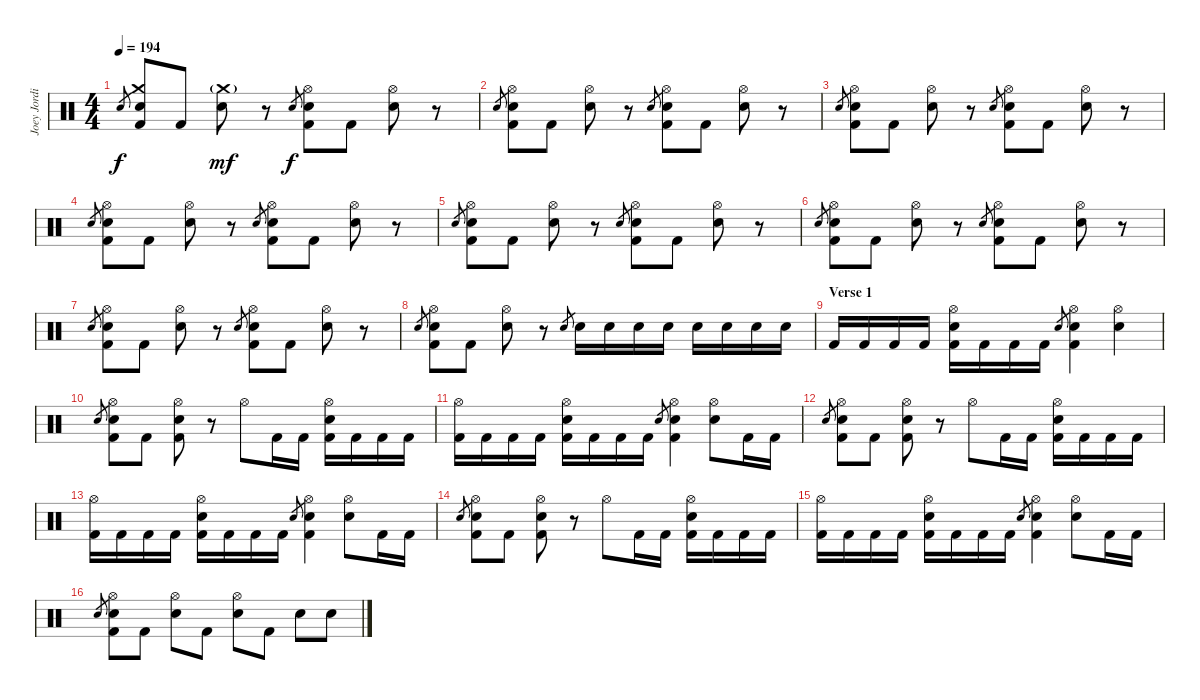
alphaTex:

\track ("Joey Jordison" "Joey Jordi") {instrument percussion}
\staff {score}
\articulation defaults
\ts (4 4)
\tempo 194
\clef neutral
\ks c "Snare (hit) 2".8{gr dy f}
("Crash medium (hit)" "Snare (hit)" "Kick (hit) 2").8 "Kick (hit) 2".8 ("Crash medium (hit)"{g} "Snare (hit) 2").8{dy mf} r.8 "Snare (hit) 2".8{gr dy f} ("Hi-Hat (open)" "Snare (hit)" "Kick (hit) 2").8 "Kick (hit) 2".8 ("Hi-Hat (open)" "Snare (hit) 2").8 r.8 |
"Snare (hit) 2".8{gr} ("Hi-Hat (open)" "Snare (hit)" "Kick (hit) 2").8 "Kick (hit) 2".8 ("Hi-Hat (open)" "Snare (hit) 2").8 r.8 "Snare (hit) 2".8{gr} ("Hi-Hat (open)" "Snare (hit)" "Kick (hit) 2").8 "Kick (hit) 2".8 ("Hi-Hat (open)" "Snare (hit) 2").8 r.8 |
"Snare (hit) 2".8{gr} ("Hi-Hat (open)" "Snare (hit)" "Kick (hit) 2").8 "Kick (hit) 2".8 ("Hi-Hat (open)" "Snare (hit) 2").8 r.8 "Snare (hit) 2".8{gr} ("Hi-Hat (open)" "Snare (hit)" "Kick (hit) 2").8 "Kick (hit) 2".8 ("Hi-Hat (open)" "Snare (hit) 2").8 r.8 |
"Snare (hit) 2".8{gr} ("Hi-Hat (open)" "Snare (hit)" "Kick (hit) 2").8 "Kick (hit) 2".8 ("Hi-Hat (open)" "Snare (hit) 2").8 r.8 "Snare (hit) 2".8{gr} ("Hi-Hat (open)" "Snare (hit)" "Kick (hit) 2").8 "Kick (hit) 2".8 ("Hi-Hat (open)" "Snare (hit) 2").8 r.8 |
"Snare (hit) 2".8{gr} ("Hi-Hat (open)" "Snare (hit)" "Kick (hit) 2").8 "Kick (hit) 2".8 ("Hi-Hat (open)" "Snare (hit) 2").8 r.8 "Snare (hit) 2".8{gr} ("Hi-Hat (open)" "Snare (hit)" "Kick (hit) 2").8 "Kick (hit) 2".8 ("Hi-Hat (open)" "Snare (hit) 2").8 r.8 |
"Snare (hit) 2".8{gr} ("Hi-Hat (open)" "Snare (hit)" "Kick (hit) 2").8 "Kick (hit) 2".8 ("Hi-Hat (open)" "Snare (hit) 2").8 r.8 "Snare (hit) 2".8{gr} ("Hi-Hat (open)" "Snare (hit)" "Kick (hit) 2").8 "Kick (hit) 2".8 ("Hi-Hat (open)" "Snare (hit) 2").8 r.8 |
"Snare (hit) 2".8{gr} ("Hi-Hat (open)" "Snare (hit)" "Kick (hit) 2").8 "Kick (hit) 2".8 ("Hi-Hat (open)" "Snare (hit) 2").8 r.8 "Snare (hit) 2".8{gr} ("Hi-Hat (open)" "Snare (hit)" "Kick (hit) 2").8 "Kick (hit) 2".8 ("Hi-Hat (open)" "Snare (hit) 2").8 r.8 |
"Snare (hit) 2".8{gr} ("Hi-Hat (open)" "Snare (hit)" "Kick (hit) 2").8 "Kick (hit) 2".8 ("Hi-Hat (open)" "Snare (hit) 2").8 r.8 "Snare (hit) 2".8{gr} "Snare (hit) 2".16 "Snare (hit) 2".16 "Snare (hit) 2".16 "Snare (hit) 2".16 "Snare (hit) 2".16 "Snare (hit) 2".16 "Snare (hit) 2".16 "Snare (hit) 2".16 |
\section ("" "Verse 1")
"Kick (hit) 2".16 "Kick (hit) 2".16 "Kick (hit) 2".16 "Kick (hit) 2".16 ("Hi-Hat (open)" "Snare (hit) 2" "Kick (hit) 2").16 "Kick (hit) 2".16 "Kick (hit) 2".16 "Kick (hit) 2".16 "Snare (hit) 2".8{gr} ("Hi-Hat (open)" "Snare (hit)" "Kick (hit) 2").4 ("Hi-Hat (open)" "Snare (hit) 2").4 |
"Snare (hit) 2".8{gr} ("Hi-Hat (open)" "Snare (hit)" "Kick (hit) 2").8 "Kick (hit) 2".8 ("Hi-Hat (open)" "Snare (hit) 2" "Kick (hit) 2").8 r.8 "Hi-Hat (open)".8 "Kick (hit) 2".16 "Kick (hit) 2".16 ("Hi-Hat (open)" "Snare (hit) 2" "Kick (hit) 2").16 "Kick (hit) 2".16 "Kick (hit) 2".16 "Kick (hit) 2".16 |
("Hi-Hat (open)" "Kick (hit) 2").16 "Kick (hit) 2".16 "Kick (hit) 2".16 "Kick (hit) 2".16 ("Hi-Hat (open)" "Snare (hit) 2" "Kick (hit) 2").16 "Kick (hit) 2".16 "Kick (hit) 2".16 "Kick (hit) 2".16 "Snare (hit) 2".8{gr} ("Hi-Hat (open)" "Snare (hit)" "Kick (hit) 2").4 ("Hi-Hat (open)" "Snare (hit) 2").8 "Kick (hit) 2".16 "Kick (hit) 2".16 |
"Snare (hit) 2".8{gr} ("Hi-Hat (open)" "Snare (hit)" "Kick (hit) 2").8 "Kick (hit) 2".8 ("Hi-Hat (open)" "Snare (hit) 2" "Kick (hit) 2").8 r.8 "Hi-Hat (open)".8 "Kick (hit) 2".16 "Kick (hit) 2".16 ("Hi-Hat (open)" "Snare (hit) 2" "Kick (hit) 2").16 "Kick (hit) 2".16 "Kick (hit) 2".16 "Kick (hit) 2".16 |
("Hi-Hat (open)" "Kick (hit) 2").16 "Kick (hit) 2".16 "Kick (hit) 2".16 "Kick (hit) 2".16 ("Hi-Hat (open)" "Snare (hit) 2" "Kick (hit) 2").16 "Kick (hit) 2".16 "Kick (hit) 2".16 "Kick (hit) 2".16 "Snare (hit) 2".8{gr} ("Hi-Hat (open)" "Snare (hit)" "Kick (hit) 2").4 ("Hi-Hat (open)" "Snare (hit) 2").8 "Kick (hit) 2".16 "Kick (hit) 2".16 |
"Snare (hit) 2".8{gr} ("Hi-Hat (open)" "Snare (hit)" "Kick (hit) 2").8 "Kick (hit) 2".8 ("Hi-Hat (open)" "Snare (hit) 2" "Kick (hit) 2").8 r.8 "Hi-Hat (open)".8 "Kick (hit) 2".16 "Kick (hit) 2".16 ("Hi-Hat (open)" "Snare (hit) 2" "Kick (hit) 2").16 "Kick (hit) 2".16 "Kick (hit) 2".16 "Kick (hit) 2".16 |
("Hi-Hat (open)" "Kick (hit) 2").16 "Kick (hit) 2".16 "Kick (hit) 2".16 "Kick (hit) 2".16 ("Hi-Hat (open)" "Snare (hit) 2" "Kick (hit) 2").16 "Kick (hit) 2".16 "Kick (hit) 2".16 "Kick (hit) 2".16 "Snare (hit) 2".8{gr} ("Hi-Hat (open)" "Snare (hit)" "Kick (hit) 2").4 ("Hi-Hat (open)" "Snare (hit) 2").8 "Kick (hit) 2".16 "Kick (hit) 2".16 |
"Snare (hit) 2".8{gr} ("Hi-Hat (open)" "Snare (hit)" "Kick (hit) 2").8 "Kick (hit) 2".8 ("Hi-Hat (open)" "Snare (hit) 2").8 "Kick (hit) 2".8 ("Hi-Hat (open)" "Snare (hit) 2").8 "Kick (hit) 2".8 "Snare (hit) 2".8 "Snare (hit) 2".8
